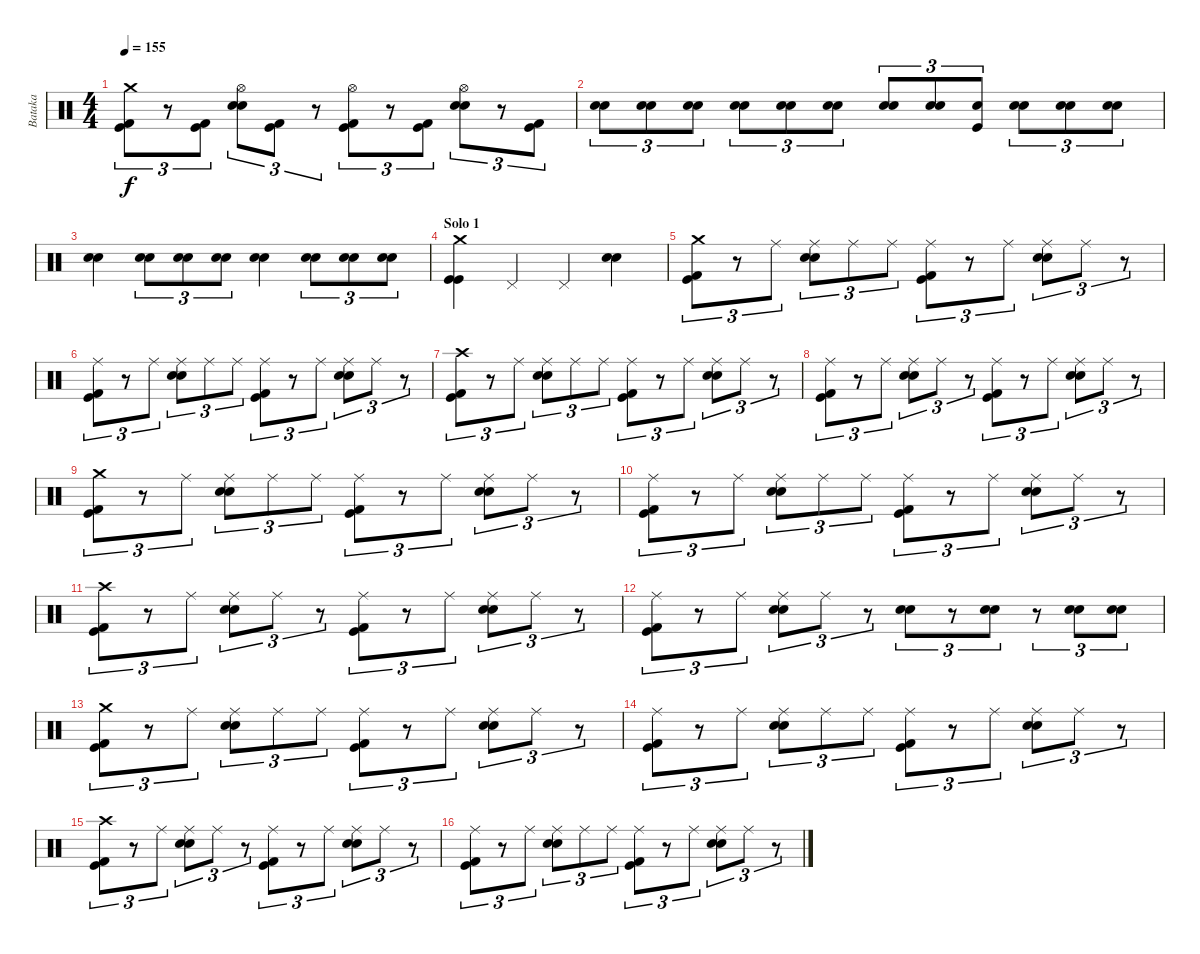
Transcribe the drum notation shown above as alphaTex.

\track ("Bataka" "Bataka") {instrument percussion}
\staff {score}
\articulation defaults
\ts (4 4)
\tempo 155
\clef neutral
\ks c
("Crash medium (hit)" "Kick (hit) 2" "Kick (hit)").8{tu (3 2) dy f} r.8{tu (3 2)} ("Kick (hit) 2" "Kick (hit)").8{tu (3 2)} ("Hi-Hat (open)" "Snare (hit) 2" "Snare (hit) 2").8{tu (3 2)} ("Kick (hit) 2" "Kick (hit)").8{tu (3 2)} r.8{tu (3 2)} ("Hi-Hat (open)" "Kick (hit) 2" "Kick (hit)").8{tu (3 2)} r.8{tu (3 2)} ("Kick (hit) 2" "Kick (hit)").8{tu (3 2)} ("Hi-Hat (open)" "Snare (hit) 2" "Snare (hit) 2").8{tu (3 2)} r.8{tu (3 2)} ("Kick (hit) 2" "Kick (hit)").8{tu (3 2)} |
("Snare (hit) 2" "Snare (hit) 2").8{tu (3 2)} ("Snare (hit) 2" "Snare (hit) 2").8{tu (3 2)} ("Snare (hit) 2" "Snare (hit) 2").8{tu (3 2)} ("Snare (hit) 2" "Snare (hit) 2").8{tu (3 2)} ("Snare (hit) 2" "Snare (hit) 2").8{tu (3 2)} ("Snare (hit) 2" "Snare (hit) 2").8{tu (3 2)} ("Snare (hit) 2" "Snare (hit) 2").8{tu (3 2)} ("Snare (hit) 2" "Snare (hit) 2").8{tu (3 2)} ("Snare (hit) 2" "Kick (hit)").8{tu (3 2)} ("Snare (hit) 2" "Snare (hit) 2").8{tu (3 2)} ("Snare (hit) 2" "Snare (hit) 2").8{tu (3 2)} ("Snare (hit) 2" "Snare (hit) 2").8{tu (3 2)} |
("Snare (hit) 2" "Snare (hit) 2").4 ("Snare (hit) 2" "Snare (hit) 2").8{tu (3 2)} ("Snare (hit) 2" "Snare (hit) 2").8{tu (3 2)} ("Snare (hit) 2" "Snare (hit) 2").8{tu (3 2)} ("Snare (hit) 2" "Snare (hit) 2").4 ("Snare (hit) 2" "Snare (hit) 2").8{tu (3 2)} ("Snare (hit) 2" "Snare (hit) 2").8{tu (3 2)} ("Snare (hit) 2" "Snare (hit) 2").8{tu (3 2)} |
\section ("" "Solo 1")
("Crash medium (hit)" "Kick (hit)" "Kick (hit)").4 "Pedal Hi-Hat (hit)".4 "Pedal Hi-Hat (hit)".4 ("Snare (hit) 2" "Snare (hit) 2").4 |
("Crash medium (hit)" "Kick (hit) 2" "Kick (hit)").8{tu (3 2)} r.8{tu (3 2)} "Ride (middle)".8{tu (3 2)} ("Ride (middle)" "Snare (hit) 2" "Snare (hit) 2").8{tu (3 2)} "Ride (middle)".8{tu (3 2)} "Ride (middle)".8{tu (3 2)} ("Ride (middle)" "Kick (hit) 2" "Kick (hit)").8{tu (3 2)} r.8{tu (3 2)} "Ride (middle)".8{tu (3 2)} ("Ride (middle)" "Snare (hit) 2" "Snare (hit) 2").8{tu (3 2)} "Ride (middle)".8{tu (3 2)} r.8{tu (3 2)} |
("Ride (middle)" "Kick (hit) 2" "Kick (hit)").8{tu (3 2)} r.8{tu (3 2)} "Ride (middle)".8{tu (3 2)} ("Ride (middle)" "Snare (hit) 2" "Snare (hit) 2").8{tu (3 2)} "Ride (middle)".8{tu (3 2)} "Ride (middle)".8{tu (3 2)} ("Ride (middle)" "Kick (hit) 2" "Kick (hit)").8{tu (3 2)} r.8{tu (3 2)} "Ride (middle)".8{tu (3 2)} ("Ride (middle)" "Snare (hit) 2" "Snare (hit) 2").8{tu (3 2)} "Ride (middle)".8{tu (3 2)} r.8{tu (3 2)} |
("Crash high (hit)" "Kick (hit) 2" "Kick (hit)").8{tu (3 2)} r.8{tu (3 2)} "Ride (middle)".8{tu (3 2)} ("Ride (middle)" "Snare (hit) 2" "Snare (hit) 2").8{tu (3 2)} "Ride (middle)".8{tu (3 2)} "Ride (middle)".8{tu (3 2)} ("Ride (middle)" "Kick (hit) 2" "Kick (hit)").8{tu (3 2)} r.8{tu (3 2)} "Ride (middle)".8{tu (3 2)} ("Ride (middle)" "Snare (hit) 2" "Snare (hit) 2").8{tu (3 2)} "Ride (middle)".8{tu (3 2)} r.8{tu (3 2)} |
("Ride (middle)" "Kick (hit) 2" "Kick (hit)").8{tu (3 2)} r.8{tu (3 2)} "Ride (middle)".8{tu (3 2)} ("Ride (middle)" "Snare (hit) 2" "Snare (hit) 2").8{tu (3 2)} "Ride (middle)".8{tu (3 2)} r.8{tu (3 2)} ("Ride (middle)" "Kick (hit) 2" "Kick (hit)").8{tu (3 2)} r.8{tu (3 2)} "Ride (middle)".8{tu (3 2)} ("Ride (middle)" "Snare (hit) 2" "Snare (hit) 2").8{tu (3 2)} "Ride (middle)".8{tu (3 2)} r.8{tu (3 2)} |
("Crash medium (hit)" "Kick (hit) 2" "Kick (hit)").8{tu (3 2)} r.8{tu (3 2)} "Ride (middle)".8{tu (3 2)} ("Ride (middle)" "Snare (hit) 2" "Snare (hit) 2").8{tu (3 2)} "Ride (middle)".8{tu (3 2)} "Ride (middle)".8{tu (3 2)} ("Ride (middle)" "Kick (hit) 2" "Kick (hit)").8{tu (3 2)} r.8{tu (3 2)} "Ride (middle)".8{tu (3 2)} ("Ride (middle)" "Snare (hit) 2" "Snare (hit) 2").8{tu (3 2)} "Ride (middle)".8{tu (3 2)} r.8{tu (3 2)} |
("Ride (middle)" "Kick (hit) 2" "Kick (hit)").8{tu (3 2)} r.8{tu (3 2)} "Ride (middle)".8{tu (3 2)} ("Ride (middle)" "Snare (hit) 2" "Snare (hit) 2").8{tu (3 2)} "Ride (middle)".8{tu (3 2)} "Ride (middle)".8{tu (3 2)} ("Ride (middle)" "Kick (hit) 2" "Kick (hit)").8{tu (3 2)} r.8{tu (3 2)} "Ride (middle)".8{tu (3 2)} ("Ride (middle)" "Snare (hit) 2" "Snare (hit) 2").8{tu (3 2)} "Ride (middle)".8{tu (3 2)} r.8{tu (3 2)} |
("Crash high (hit)" "Kick (hit) 2" "Kick (hit)").8{tu (3 2)} r.8{tu (3 2)} "Ride (middle)".8{tu (3 2)} ("Ride (middle)" "Snare (hit) 2" "Snare (hit) 2").8{tu (3 2)} "Ride (middle)".8{tu (3 2)} r.8{tu (3 2)} ("Ride (middle)" "Kick (hit) 2" "Kick (hit)").8{tu (3 2)} r.8{tu (3 2)} "Ride (middle)".8{tu (3 2)} ("Ride (middle)" "Snare (hit) 2" "Snare (hit) 2").8{tu (3 2)} "Ride (middle)".8{tu (3 2)} r.8{tu (3 2)} |
("Ride (middle)" "Kick (hit) 2" "Kick (hit)").8{tu (3 2)} r.8{tu (3 2)} "Ride (middle)".8{tu (3 2)} ("Ride (middle)" "Snare (hit) 2" "Snare (hit) 2").8{tu (3 2)} "Ride (middle)".8{tu (3 2)} r.8{tu (3 2)} ("Snare (hit) 2" "Snare (hit) 2").8{tu (3 2)} r.8{tu (3 2)} ("Snare (hit) 2" "Snare (hit) 2").8{tu (3 2)} r.8{tu (3 2)} ("Snare (hit) 2" "Snare (hit) 2").8{tu (3 2)} ("Snare (hit) 2" "Snare (hit) 2").8{tu (3 2)} |
("Crash medium (hit)" "Kick (hit) 2" "Kick (hit)").8{tu (3 2)} r.8{tu (3 2)} "Ride (middle)".8{tu (3 2)} ("Ride (middle)" "Snare (hit) 2" "Snare (hit) 2").8{tu (3 2)} "Ride (middle)".8{tu (3 2)} "Ride (middle)".8{tu (3 2)} ("Ride (middle)" "Kick (hit) 2" "Kick (hit)").8{tu (3 2)} r.8{tu (3 2)} "Ride (middle)".8{tu (3 2)} ("Ride (middle)" "Snare (hit) 2" "Snare (hit) 2").8{tu (3 2)} "Ride (middle)".8{tu (3 2)} r.8{tu (3 2)} |
("Ride (middle)" "Kick (hit) 2" "Kick (hit)").8{tu (3 2)} r.8{tu (3 2)} "Ride (middle)".8{tu (3 2)} ("Ride (middle)" "Snare (hit) 2" "Snare (hit) 2").8{tu (3 2)} "Ride (middle)".8{tu (3 2)} "Ride (middle)".8{tu (3 2)} ("Ride (middle)" "Kick (hit) 2" "Kick (hit)").8{tu (3 2)} r.8{tu (3 2)} "Ride (middle)".8{tu (3 2)} ("Ride (middle)" "Snare (hit) 2" "Snare (hit) 2").8{tu (3 2)} "Ride (middle)".8{tu (3 2)} r.8{tu (3 2)} |
("Crash high (hit)" "Kick (hit) 2" "Kick (hit)").8{tu (3 2)} r.8{tu (3 2)} "Ride (middle)".8{tu (3 2)} ("Ride (middle)" "Snare (hit) 2" "Snare (hit) 2").8{tu (3 2)} "Ride (middle)".8{tu (3 2)} r.8{tu (3 2)} ("Ride (middle)" "Kick (hit) 2" "Kick (hit)").8{tu (3 2)} r.8{tu (3 2)} "Ride (middle)".8{tu (3 2)} ("Ride (middle)" "Snare (hit) 2" "Snare (hit) 2").8{tu (3 2)} "Ride (middle)".8{tu (3 2)} r.8{tu (3 2)} |
("Ride (middle)" "Kick (hit) 2" "Kick (hit)").8{tu (3 2)} r.8{tu (3 2)} "Ride (middle)".8{tu (3 2)} ("Ride (middle)" "Snare (hit) 2" "Snare (hit) 2").8{tu (3 2)} "Ride (middle)".8{tu (3 2)} "Ride (middle)".8{tu (3 2)} ("Ride (middle)" "Kick (hit) 2" "Kick (hit)").8{tu (3 2)} r.8{tu (3 2)} "Ride (middle)".8{tu (3 2)} ("Ride (middle)" "Snare (hit) 2" "Snare (hit) 2").8{tu (3 2)} "Ride (middle)".8{tu (3 2)} r.8{tu (3 2)}
